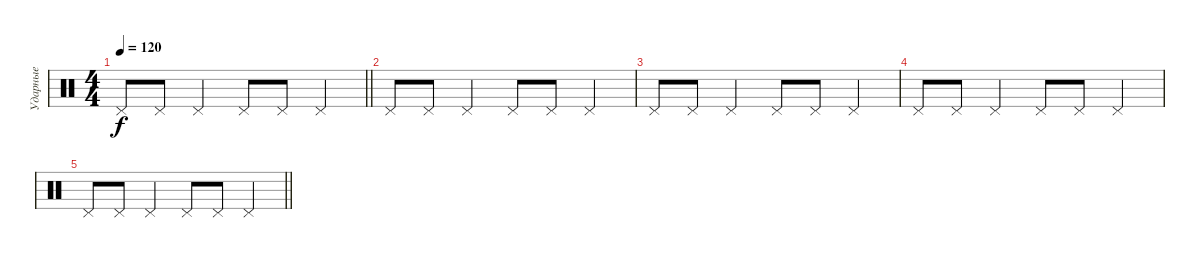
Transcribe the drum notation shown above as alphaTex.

\track ("Ударные" "Ударные") {instrument percussion}
\staff {score}
\articulation defaults
\ts (4 4)
\tempo 120
\clef neutral
\barLineRight lightlight
\ks c "Pedal Hi-Hat (hit)".8{dy f} "Pedal Hi-Hat (hit)".8 "Pedal Hi-Hat (hit)".4 "Pedal Hi-Hat (hit)".8 "Pedal Hi-Hat (hit)".8 "Pedal Hi-Hat (hit)".4
|
"Pedal Hi-Hat (hit)".8 "Pedal Hi-Hat (hit)".8 "Pedal Hi-Hat (hit)".4 "Pedal Hi-Hat (hit)".8 "Pedal Hi-Hat (hit)".8 "Pedal Hi-Hat (hit)".4 |
"Pedal Hi-Hat (hit)".8 "Pedal Hi-Hat (hit)".8 "Pedal Hi-Hat (hit)".4 "Pedal Hi-Hat (hit)".8 "Pedal Hi-Hat (hit)".8 "Pedal Hi-Hat (hit)".4 |
"Pedal Hi-Hat (hit)".8 "Pedal Hi-Hat (hit)".8 "Pedal Hi-Hat (hit)".4 "Pedal Hi-Hat (hit)".8 "Pedal Hi-Hat (hit)".8 "Pedal Hi-Hat (hit)".4 |
\barLineRight lightlight "Pedal Hi-Hat (hit)".8 "Pedal Hi-Hat (hit)".8 "Pedal Hi-Hat (hit)".4 "Pedal Hi-Hat (hit)".8 "Pedal Hi-Hat (hit)".8 "Pedal Hi-Hat (hit)".4
